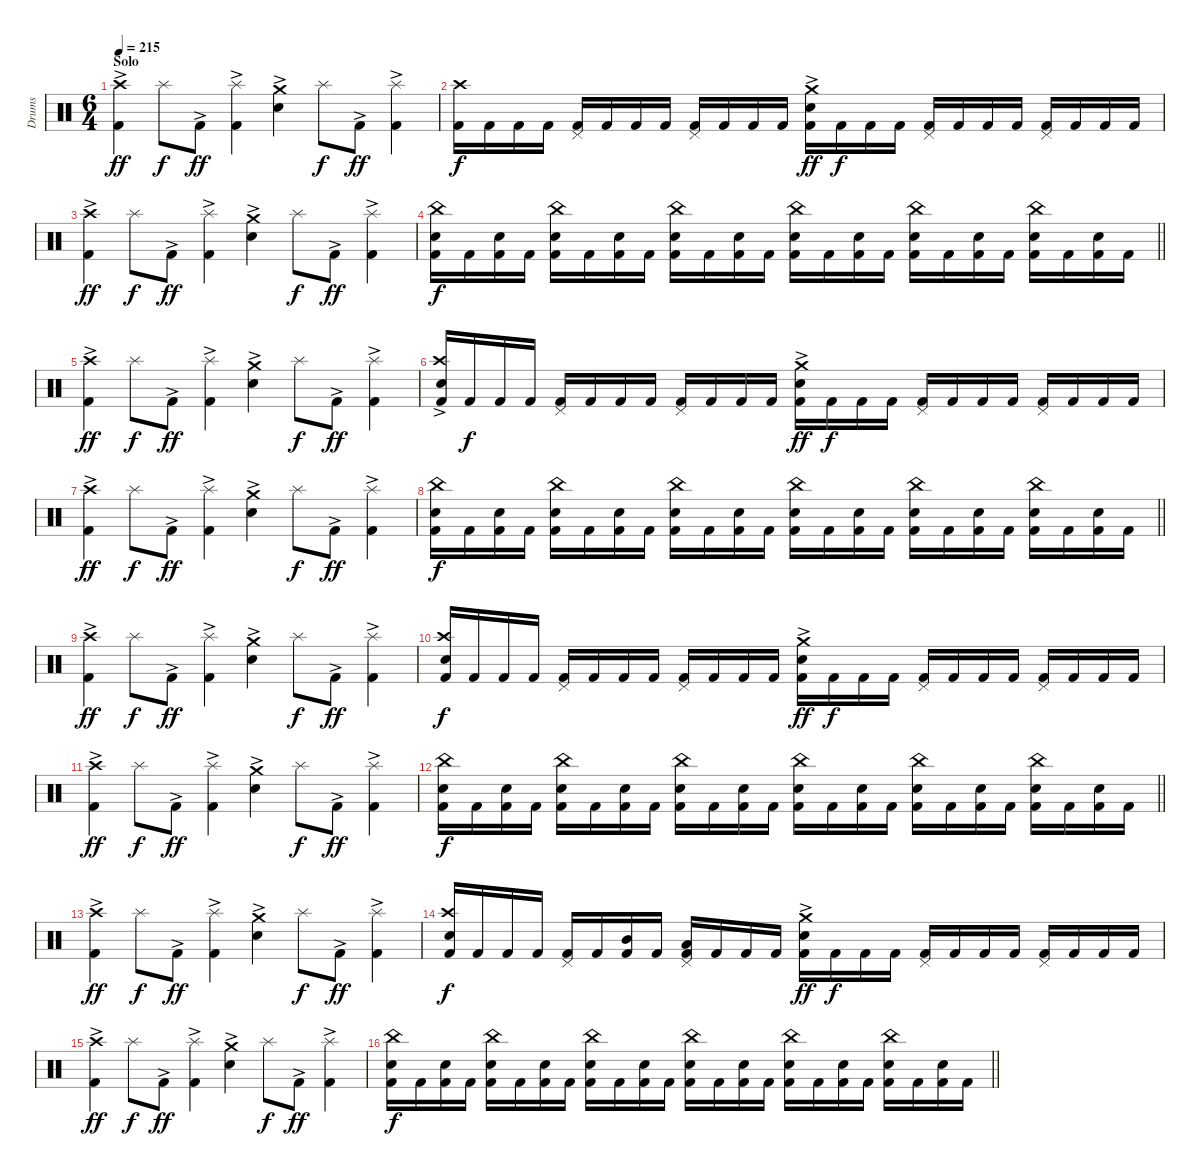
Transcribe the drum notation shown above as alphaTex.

\track ("Drums" "Drums") {instrument percussion}
\staff {score}
\articulation defaults
\ts (6 4)
\section ("" "Solo")
\tempo 215
\clef neutral
\ks c
("Kick (hit) 2"{ac} "Crash high (hit)").4{dy ff} "Splash (hit)".8{dy f} "Kick (hit) 2"{ac}.8{dy ff} ("Kick (hit) 2"{ac} "Splash (hit)").4 ("Snare (hit) 2"{ac} "Crash medium (hit)").4 "Splash (hit)".8{dy f} "Kick (hit) 2"{ac}.8{dy ff} ("Kick (hit) 2"{ac} "Splash (hit)").4 |
("Kick (hit) 2" "Crash high (hit)").16{dy f} "Kick (hit) 2".16 "Kick (hit) 2".16 "Kick (hit) 2".16 ("Kick (hit) 2" "Pedal Hi-Hat (hit)").16 "Kick (hit) 2".16 "Kick (hit) 2".16 "Kick (hit) 2".16 ("Kick (hit) 2" "Pedal Hi-Hat (hit)").16 "Kick (hit) 2".16 "Kick (hit) 2".16 "Kick (hit) 2".16 ("Kick (hit) 2" "Snare (hit) 2"{ac} "Crash medium (hit)").16{dy ff} "Kick (hit) 2".16{dy f} "Kick (hit) 2".16 "Kick (hit) 2".16 ("Kick (hit) 2" "Pedal Hi-Hat (hit)").16 "Kick (hit) 2".16 "Kick (hit) 2".16 "Kick (hit) 2".16 ("Kick (hit) 2" "Pedal Hi-Hat (hit)").16 "Kick (hit) 2".16 "Kick (hit) 2".16 "Kick (hit) 2".16 |
("Kick (hit) 2"{ac} "Crash high (hit)").4{dy ff} "Splash (hit)".8{dy f} "Kick (hit) 2"{ac}.8{dy ff} ("Kick (hit) 2"{ac} "Splash (hit)").4 ("Snare (hit) 2"{ac} "Crash medium (hit)").4 "Splash (hit)".8{dy f} "Kick (hit) 2"{ac}.8{dy ff} ("Kick (hit) 2"{ac} "Splash (hit)").4 |
\barLineRight lightlight
("Kick (hit) 2" "Snare (hit) 2" "China (hit)").16{dy f} "Kick (hit) 2".16 ("Kick (hit) 2" "Snare (hit) 2").16 "Kick (hit) 2".16 ("Kick (hit) 2" "Snare (hit) 2" "China (hit)").16 "Kick (hit) 2".16 ("Kick (hit) 2" "Snare (hit) 2").16 "Kick (hit) 2".16 ("Kick (hit) 2" "Snare (hit) 2" "China (hit)").16 "Kick (hit) 2".16 ("Kick (hit) 2" "Snare (hit) 2").16 "Kick (hit) 2".16 ("Kick (hit) 2" "Snare (hit) 2" "China (hit)").16 "Kick (hit) 2".16 ("Kick (hit) 2" "Snare (hit) 2").16 "Kick (hit) 2".16 ("Kick (hit) 2" "Snare (hit) 2" "China (hit)").16 "Kick (hit) 2".16 ("Kick (hit) 2" "Snare (hit) 2").16 "Kick (hit) 2".16 ("Kick (hit) 2" "Snare (hit) 2" "China (hit)").16 "Kick (hit) 2".16 ("Kick (hit) 2" "Snare (hit) 2").16 "Kick (hit) 2".16 |
\section ("" "")
("Kick (hit) 2"{ac} "Crash high (hit)").4{dy ff} "Splash (hit)".8{dy f} "Kick (hit) 2"{ac}.8{dy ff} ("Kick (hit) 2"{ac} "Splash (hit)").4 ("Snare (hit) 2"{ac} "Crash medium (hit)").4 "Splash (hit)".8{dy f} "Kick (hit) 2"{ac}.8{dy ff} ("Kick (hit) 2"{ac} "Splash (hit)").4 |
("Kick (hit) 2" "Snare (hit) 2"{ac} "Crash high (hit)").16 "Kick (hit) 2".16{dy f} "Kick (hit) 2".16 "Kick (hit) 2".16 ("Kick (hit) 2" "Pedal Hi-Hat (hit)").16 "Kick (hit) 2".16 "Kick (hit) 2".16 "Kick (hit) 2".16 ("Kick (hit) 2" "Pedal Hi-Hat (hit)").16 "Kick (hit) 2".16 "Kick (hit) 2".16 "Kick (hit) 2".16 ("Kick (hit) 2" "Snare (hit) 2"{ac} "Crash medium (hit)").16{dy ff} "Kick (hit) 2".16{dy f} "Kick (hit) 2".16 "Kick (hit) 2".16 ("Kick (hit) 2" "Pedal Hi-Hat (hit)").16 "Kick (hit) 2".16 "Kick (hit) 2".16 "Kick (hit) 2".16 ("Kick (hit) 2" "Pedal Hi-Hat (hit)").16 "Kick (hit) 2".16 "Kick (hit) 2".16 "Kick (hit) 2".16 |
("Kick (hit) 2"{ac} "Crash high (hit)").4{dy ff} "Splash (hit)".8{dy f} "Kick (hit) 2"{ac}.8{dy ff} ("Kick (hit) 2"{ac} "Splash (hit)").4 ("Snare (hit) 2"{ac} "Crash medium (hit)").4 "Splash (hit)".8{dy f} "Kick (hit) 2"{ac}.8{dy ff} ("Kick (hit) 2"{ac} "Splash (hit)").4 |
\barLineRight lightlight
("Kick (hit) 2" "Snare (hit) 2" "China (hit)").16{dy f} "Kick (hit) 2".16 ("Kick (hit) 2" "Snare (hit) 2").16 "Kick (hit) 2".16 ("Kick (hit) 2" "Snare (hit) 2" "China (hit)").16 "Kick (hit) 2".16 ("Kick (hit) 2" "Snare (hit) 2").16 "Kick (hit) 2".16 ("Kick (hit) 2" "Snare (hit) 2" "China (hit)").16 "Kick (hit) 2".16 ("Kick (hit) 2" "Snare (hit) 2").16 "Kick (hit) 2".16 ("Kick (hit) 2" "Snare (hit) 2" "China (hit)").16 "Kick (hit) 2".16 ("Kick (hit) 2" "Snare (hit) 2").16 "Kick (hit) 2".16 ("Kick (hit) 2" "Snare (hit) 2" "China (hit)").16 "Kick (hit) 2".16 ("Kick (hit) 2" "Snare (hit) 2").16 "Kick (hit) 2".16 ("Kick (hit) 2" "Snare (hit) 2" "China (hit)").16 "Kick (hit) 2".16 ("Kick (hit) 2" "Snare (hit) 2").16 "Kick (hit) 2".16 |
\section ("" "")
("Kick (hit) 2"{ac} "Crash high (hit)").4{dy ff} "Splash (hit)".8{dy f} "Kick (hit) 2"{ac}.8{dy ff} ("Kick (hit) 2"{ac} "Splash (hit)").4 ("Snare (hit) 2"{ac} "Crash medium (hit)").4 "Splash (hit)".8{dy f} "Kick (hit) 2"{ac}.8{dy ff} ("Kick (hit) 2"{ac} "Splash (hit)").4 |
("Kick (hit) 2" "Snare (hit) 2" "Crash high (hit)").16{dy f} "Kick (hit) 2".16 "Kick (hit) 2".16 "Kick (hit) 2".16 ("Kick (hit) 2" "Pedal Hi-Hat (hit)").16 "Kick (hit) 2".16 "Kick (hit) 2".16 "Kick (hit) 2".16 ("Kick (hit) 2" "Pedal Hi-Hat (hit)").16 "Kick (hit) 2".16 "Kick (hit) 2".16 "Kick (hit) 2".16 ("Kick (hit) 2" "Snare (hit) 2"{ac} "Crash medium (hit)").16{dy ff} "Kick (hit) 2".16{dy f} "Kick (hit) 2".16 "Kick (hit) 2".16 ("Kick (hit) 2" "Pedal Hi-Hat (hit)").16 "Kick (hit) 2".16 "Kick (hit) 2".16 "Kick (hit) 2".16 ("Kick (hit) 2" "Pedal Hi-Hat (hit)").16 "Kick (hit) 2".16 "Kick (hit) 2".16 "Kick (hit) 2".16 |
("Kick (hit) 2"{ac} "Crash high (hit)").4{dy ff} "Splash (hit)".8{dy f} "Kick (hit) 2"{ac}.8{dy ff} ("Kick (hit) 2"{ac} "Splash (hit)").4 ("Snare (hit) 2"{ac} "Crash medium (hit)").4 "Splash (hit)".8{dy f} "Kick (hit) 2"{ac}.8{dy ff} ("Kick (hit) 2"{ac} "Splash (hit)").4 |
\barLineRight lightlight
("Kick (hit) 2" "Snare (hit) 2" "China (hit)").16{dy f} "Kick (hit) 2".16 ("Kick (hit) 2" "Snare (hit) 2").16 "Kick (hit) 2".16 ("Kick (hit) 2" "Snare (hit) 2" "China (hit)").16 "Kick (hit) 2".16 ("Kick (hit) 2" "Snare (hit) 2").16 "Kick (hit) 2".16 ("Kick (hit) 2" "Snare (hit) 2" "China (hit)").16 "Kick (hit) 2".16 ("Kick (hit) 2" "Snare (hit) 2").16 "Kick (hit) 2".16 ("Kick (hit) 2" "Snare (hit) 2" "China (hit)").16 "Kick (hit) 2".16 ("Kick (hit) 2" "Snare (hit) 2").16 "Kick (hit) 2".16 ("Kick (hit) 2" "Snare (hit) 2" "China (hit)").16 "Kick (hit) 2".16 ("Kick (hit) 2" "Snare (hit) 2").16 "Kick (hit) 2".16 ("Kick (hit) 2" "Snare (hit) 2" "China (hit)").16 "Kick (hit) 2".16 ("Kick (hit) 2" "Snare (hit) 2").16 "Kick (hit) 2".16 |
\section ("" "")
("Kick (hit) 2"{ac} "Crash high (hit)").4{dy ff} "Splash (hit)".8{dy f} "Kick (hit) 2"{ac}.8{dy ff} ("Kick (hit) 2"{ac} "Splash (hit)").4 ("Snare (hit) 2"{ac} "Crash medium (hit)").4 "Splash (hit)".8{dy f} "Kick (hit) 2"{ac}.8{dy ff} ("Kick (hit) 2"{ac} "Splash (hit)").4 |
("Kick (hit) 2" "Snare (hit) 2" "Crash high (hit)").16{dy f} "Kick (hit) 2".16 "Kick (hit) 2".16 "Kick (hit) 2".16 ("Kick (hit) 2" "Pedal Hi-Hat (hit)").16 "Kick (hit) 2".16 ("Kick (hit) 2" "Mid Tom (hit)").16 "Kick (hit) 2".16 ("Kick (hit) 2" "Low Tom (hit)" "Pedal Hi-Hat (hit)").16 "Kick (hit) 2".16 "Kick (hit) 2".16 "Kick (hit) 2".16 ("Kick (hit) 2" "Snare (hit) 2"{ac} "Crash medium (hit)").16{dy ff} "Kick (hit) 2".16{dy f} "Kick (hit) 2".16 "Kick (hit) 2".16 ("Kick (hit) 2" "Pedal Hi-Hat (hit)").16 "Kick (hit) 2".16 "Kick (hit) 2".16 "Kick (hit) 2".16 ("Kick (hit) 2" "Pedal Hi-Hat (hit)").16 "Kick (hit) 2".16 "Kick (hit) 2".16 "Kick (hit) 2".16 |
("Kick (hit) 2"{ac} "Crash high (hit)").4{dy ff} "Splash (hit)".8{dy f} "Kick (hit) 2"{ac}.8{dy ff} ("Kick (hit) 2"{ac} "Splash (hit)").4 ("Snare (hit) 2"{ac} "Crash medium (hit)").4 "Splash (hit)".8{dy f} "Kick (hit) 2"{ac}.8{dy ff} ("Kick (hit) 2"{ac} "Splash (hit)").4 |
\barLineRight lightlight
("Kick (hit) 2" "Snare (hit) 2" "China (hit)").16{dy f} "Kick (hit) 2".16 ("Kick (hit) 2" "Snare (hit) 2").16 "Kick (hit) 2".16 ("Kick (hit) 2" "Snare (hit) 2" "China (hit)").16 "Kick (hit) 2".16 ("Kick (hit) 2" "Snare (hit) 2").16 "Kick (hit) 2".16 ("Kick (hit) 2" "Snare (hit) 2" "China (hit)").16 "Kick (hit) 2".16 ("Kick (hit) 2" "Snare (hit) 2").16 "Kick (hit) 2".16 ("Kick (hit) 2" "Snare (hit) 2" "China (hit)").16 "Kick (hit) 2".16 ("Kick (hit) 2" "Snare (hit) 2").16 "Kick (hit) 2".16 ("Kick (hit) 2" "Snare (hit) 2" "China (hit)").16 "Kick (hit) 2".16 ("Kick (hit) 2" "Snare (hit) 2").16 "Kick (hit) 2".16 ("Kick (hit) 2" "Snare (hit) 2" "China (hit)").16 "Kick (hit) 2".16 ("Kick (hit) 2" "Snare (hit) 2").16 "Kick (hit) 2".16
